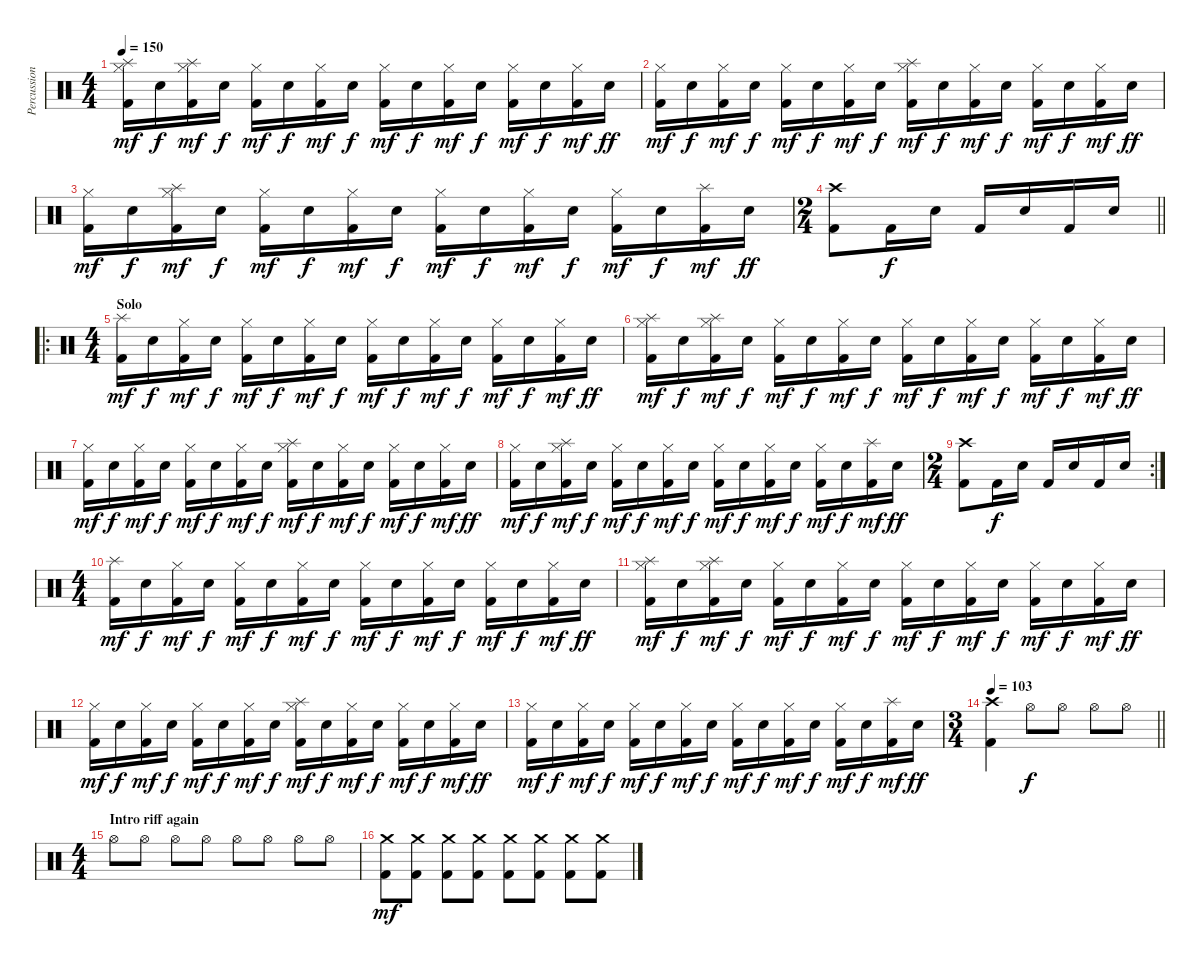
\track ("Percussion" "Percussion") {instrument percussion}
\staff {score}
\articulation defaults
\ts (4 4)
\tempo 150
\clef neutral
\ks c
("Splash (hit)" "Hi-Hat (closed)" "Kick (hit) 2").16{dy mf} "Electric Snare (hit)".16{dy f} ("Splash (hit)" "Hi-Hat (closed)" "Kick (hit) 2").16{dy mf} "Electric Snare (hit)".16{dy f} ("Hi-Hat (closed)" "Kick (hit) 2").16{dy mf} "Electric Snare (hit)".16{dy f} ("Hi-Hat (closed)" "Kick (hit) 2").16{dy mf} "Electric Snare (hit)".16{dy f} ("Hi-Hat (closed)" "Kick (hit) 2").16{dy mf} "Electric Snare (hit)".16{dy f} ("Hi-Hat (closed)" "Kick (hit) 2").16{dy mf} "Electric Snare (hit)".16{dy f} ("Hi-Hat (closed)" "Kick (hit) 2").16{dy mf} "Electric Snare (hit)".16{dy f} ("Hi-Hat (closed)" "Kick (hit) 2").16{dy mf} "Electric Snare (hit)".16{dy ff} |
("Hi-Hat (closed)" "Kick (hit) 2").16{dy mf} "Electric Snare (hit)".16{dy f} ("Hi-Hat (closed)" "Kick (hit) 2").16{dy mf} "Electric Snare (hit)".16{dy f} ("Hi-Hat (closed)" "Kick (hit) 2").16{dy mf} "Electric Snare (hit)".16{dy f} ("Hi-Hat (closed)" "Kick (hit) 2").16{dy mf} "Electric Snare (hit)".16{dy f} ("Splash (hit)" "Hi-Hat (closed)" "Kick (hit) 2").16{dy mf} "Electric Snare (hit)".16{dy f} ("Hi-Hat (closed)" "Kick (hit) 2").16{dy mf} "Electric Snare (hit)".16{dy f} ("Hi-Hat (closed)" "Kick (hit) 2").16{dy mf} "Electric Snare (hit)".16{dy f} ("Hi-Hat (closed)" "Kick (hit) 2").16{dy mf} "Electric Snare (hit)".16{dy ff} |
("Hi-Hat (closed)" "Kick (hit) 2").16{dy mf} "Electric Snare (hit)".16{dy f} ("Splash (hit)" "Hi-Hat (closed)" "Kick (hit) 2").16{dy mf} "Electric Snare (hit)".16{dy f} ("Hi-Hat (closed)" "Kick (hit) 2").16{dy mf} "Electric Snare (hit)".16{dy f} ("Hi-Hat (closed)" "Kick (hit) 2").16{dy mf} "Electric Snare (hit)".16{dy f} ("Hi-Hat (closed)" "Kick (hit) 2").16{dy mf} "Electric Snare (hit)".16{dy f} ("Hi-Hat (closed)" "Kick (hit) 2").16{dy mf} "Electric Snare (hit)".16{dy f} ("Hi-Hat (closed)" "Kick (hit) 2").16{dy mf} "Electric Snare (hit)".16{dy f} ("Splash (hit)" "Kick (hit) 2").16{dy mf} "Electric Snare (hit)".16{dy ff} |
\ts (2 4)
\barLineRight lightlight
("Crash high (hit)" "Kick (hit) 2").8 "Kick (hit) 2".16{dy f} "Electric Snare (hit)".16 "Kick (hit) 2".16 "Electric Snare (hit)".16 "Kick (hit) 2".16 "Electric Snare (hit)".16 |
\ro
\ts (4 4)
\section ("" "Solo")
("Splash (hit)" "Kick (hit) 2").16{dy mf} "Electric Snare (hit)".16{dy f} ("Hi-Hat (closed)" "Kick (hit) 2").16{dy mf} "Electric Snare (hit)".16{dy f} ("Hi-Hat (closed)" "Kick (hit) 2").16{dy mf} "Electric Snare (hit)".16{dy f} ("Hi-Hat (closed)" "Kick (hit) 2").16{dy mf} "Electric Snare (hit)".16{dy f} ("Hi-Hat (closed)" "Kick (hit) 2").16{dy mf} "Electric Snare (hit)".16{dy f} ("Hi-Hat (closed)" "Kick (hit) 2").16{dy mf} "Electric Snare (hit)".16{dy f} ("Hi-Hat (closed)" "Kick (hit) 2").16{dy mf} "Electric Snare (hit)".16{dy f} ("Hi-Hat (closed)" "Kick (hit) 2").16{dy mf} "Electric Snare (hit)".16{dy ff} |
("Splash (hit)" "Hi-Hat (closed)" "Kick (hit) 2").16{dy mf} "Electric Snare (hit)".16{dy f} ("Splash (hit)" "Hi-Hat (closed)" "Kick (hit) 2").16{dy mf} "Electric Snare (hit)".16{dy f} ("Hi-Hat (closed)" "Kick (hit) 2").16{dy mf} "Electric Snare (hit)".16{dy f} ("Hi-Hat (closed)" "Kick (hit) 2").16{dy mf} "Electric Snare (hit)".16{dy f} ("Hi-Hat (closed)" "Kick (hit) 2").16{dy mf} "Electric Snare (hit)".16{dy f} ("Hi-Hat (closed)" "Kick (hit) 2").16{dy mf} "Electric Snare (hit)".16{dy f} ("Hi-Hat (closed)" "Kick (hit) 2").16{dy mf} "Electric Snare (hit)".16{dy f} ("Hi-Hat (closed)" "Kick (hit) 2").16{dy mf} "Electric Snare (hit)".16{dy ff} |
("Hi-Hat (closed)" "Kick (hit) 2").16{dy mf} "Electric Snare (hit)".16{dy f} ("Hi-Hat (closed)" "Kick (hit) 2").16{dy mf} "Electric Snare (hit)".16{dy f} ("Hi-Hat (closed)" "Kick (hit) 2").16{dy mf} "Electric Snare (hit)".16{dy f} ("Hi-Hat (closed)" "Kick (hit) 2").16{dy mf} "Electric Snare (hit)".16{dy f} ("Splash (hit)" "Hi-Hat (closed)" "Kick (hit) 2").16{dy mf} "Electric Snare (hit)".16{dy f} ("Hi-Hat (closed)" "Kick (hit) 2").16{dy mf} "Electric Snare (hit)".16{dy f} ("Hi-Hat (closed)" "Kick (hit) 2").16{dy mf} "Electric Snare (hit)".16{dy f} ("Hi-Hat (closed)" "Kick (hit) 2").16{dy mf} "Electric Snare (hit)".16{dy ff} |
("Hi-Hat (closed)" "Kick (hit) 2").16{dy mf} "Electric Snare (hit)".16{dy f} ("Splash (hit)" "Hi-Hat (closed)" "Kick (hit) 2").16{dy mf} "Electric Snare (hit)".16{dy f} ("Hi-Hat (closed)" "Kick (hit) 2").16{dy mf} "Electric Snare (hit)".16{dy f} ("Hi-Hat (closed)" "Kick (hit) 2").16{dy mf} "Electric Snare (hit)".16{dy f} ("Hi-Hat (closed)" "Kick (hit) 2").16{dy mf} "Electric Snare (hit)".16{dy f} ("Hi-Hat (closed)" "Kick (hit) 2").16{dy mf} "Electric Snare (hit)".16{dy f} ("Hi-Hat (closed)" "Kick (hit) 2").16{dy mf} "Electric Snare (hit)".16{dy f} ("Splash (hit)" "Kick (hit) 2").16{dy mf} "Electric Snare (hit)".16{dy ff} |
\rc 2
\ts (2 4)
("Crash high (hit)" "Kick (hit) 2").8 "Kick (hit) 2".16{dy f} "Electric Snare (hit)".16 "Kick (hit) 2".16 "Electric Snare (hit)".16 "Kick (hit) 2".16 "Electric Snare (hit)".16 |
\ts (4 4)
("Splash (hit)" "Kick (hit) 2").16{dy mf} "Electric Snare (hit)".16{dy f} ("Hi-Hat (closed)" "Kick (hit) 2").16{dy mf} "Electric Snare (hit)".16{dy f} ("Hi-Hat (closed)" "Kick (hit) 2").16{dy mf} "Electric Snare (hit)".16{dy f} ("Hi-Hat (closed)" "Kick (hit) 2").16{dy mf} "Electric Snare (hit)".16{dy f} ("Hi-Hat (closed)" "Kick (hit) 2").16{dy mf} "Electric Snare (hit)".16{dy f} ("Hi-Hat (closed)" "Kick (hit) 2").16{dy mf} "Electric Snare (hit)".16{dy f} ("Hi-Hat (closed)" "Kick (hit) 2").16{dy mf} "Electric Snare (hit)".16{dy f} ("Hi-Hat (closed)" "Kick (hit) 2").16{dy mf} "Electric Snare (hit)".16{dy ff} |
("Splash (hit)" "Hi-Hat (closed)" "Kick (hit) 2").16{dy mf} "Electric Snare (hit)".16{dy f} ("Splash (hit)" "Hi-Hat (closed)" "Kick (hit) 2").16{dy mf} "Electric Snare (hit)".16{dy f} ("Hi-Hat (closed)" "Kick (hit) 2").16{dy mf} "Electric Snare (hit)".16{dy f} ("Hi-Hat (closed)" "Kick (hit) 2").16{dy mf} "Electric Snare (hit)".16{dy f} ("Hi-Hat (closed)" "Kick (hit) 2").16{dy mf} "Electric Snare (hit)".16{dy f} ("Hi-Hat (closed)" "Kick (hit) 2").16{dy mf} "Electric Snare (hit)".16{dy f} ("Hi-Hat (closed)" "Kick (hit) 2").16{dy mf} "Electric Snare (hit)".16{dy f} ("Hi-Hat (closed)" "Kick (hit) 2").16{dy mf} "Electric Snare (hit)".16{dy ff} |
("Hi-Hat (closed)" "Kick (hit) 2").16{dy mf} "Electric Snare (hit)".16{dy f} ("Hi-Hat (closed)" "Kick (hit) 2").16{dy mf} "Electric Snare (hit)".16{dy f} ("Hi-Hat (closed)" "Kick (hit) 2").16{dy mf} "Electric Snare (hit)".16{dy f} ("Hi-Hat (closed)" "Kick (hit) 2").16{dy mf} "Electric Snare (hit)".16{dy f} ("Splash (hit)" "Hi-Hat (closed)" "Kick (hit) 2").16{dy mf} "Electric Snare (hit)".16{dy f} ("Hi-Hat (closed)" "Kick (hit) 2").16{dy mf} "Electric Snare (hit)".16{dy f} ("Hi-Hat (closed)" "Kick (hit) 2").16{dy mf} "Electric Snare (hit)".16{dy f} ("Hi-Hat (closed)" "Kick (hit) 2").16{dy mf} "Electric Snare (hit)".16{dy ff} |
("Hi-Hat (closed)" "Kick (hit) 2").16{dy mf} "Electric Snare (hit)".16{dy f} ("Hi-Hat (closed)" "Kick (hit) 2").16{dy mf} "Electric Snare (hit)".16{dy f} ("Hi-Hat (closed)" "Kick (hit) 2").16{dy mf} "Electric Snare (hit)".16{dy f} ("Hi-Hat (closed)" "Kick (hit) 2").16{dy mf} "Electric Snare (hit)".16{dy f} ("Hi-Hat (closed)" "Kick (hit) 2").16{dy mf} "Electric Snare (hit)".16{dy f} ("Hi-Hat (closed)" "Kick (hit) 2").16{dy mf} "Electric Snare (hit)".16{dy f} ("Hi-Hat (closed)" "Kick (hit) 2").16{dy mf} "Electric Snare (hit)".16{dy f} ("Splash (hit)" "Kick (hit) 2").16{dy mf} "Electric Snare (hit)".16{dy ff} |
\ts (3 4)
\tempo 103
\barLineRight lightlight
("Crash high (hit)" "Kick (hit) 2").4 "Hi-Hat (open)".8{dy f} "Hi-Hat (open)".8 "Hi-Hat (open)".8 "Hi-Hat (open)".8 |
\ts (4 4)
\section ("" "Intro riff again")
"Hi-Hat (open)".8 "Hi-Hat (open)".8 "Hi-Hat (open)".8 "Hi-Hat (open)".8 "Hi-Hat (open)".8 "Hi-Hat (open)".8 "Hi-Hat (open)".8 "Hi-Hat (open)".8 |
("Crash medium (hit)" "Kick (hit) 2").8{dy mf} ("Crash medium (hit)" "Kick (hit) 2").8 ("Crash medium (hit)" "Kick (hit) 2").8 ("Crash medium (hit)" "Kick (hit) 2").8 ("Crash medium (hit)" "Kick (hit) 2").8 ("Crash medium (hit)" "Kick (hit) 2").8 ("Crash medium (hit)" "Kick (hit) 2").8 ("Crash medium (hit)" "Kick (hit) 2").8
